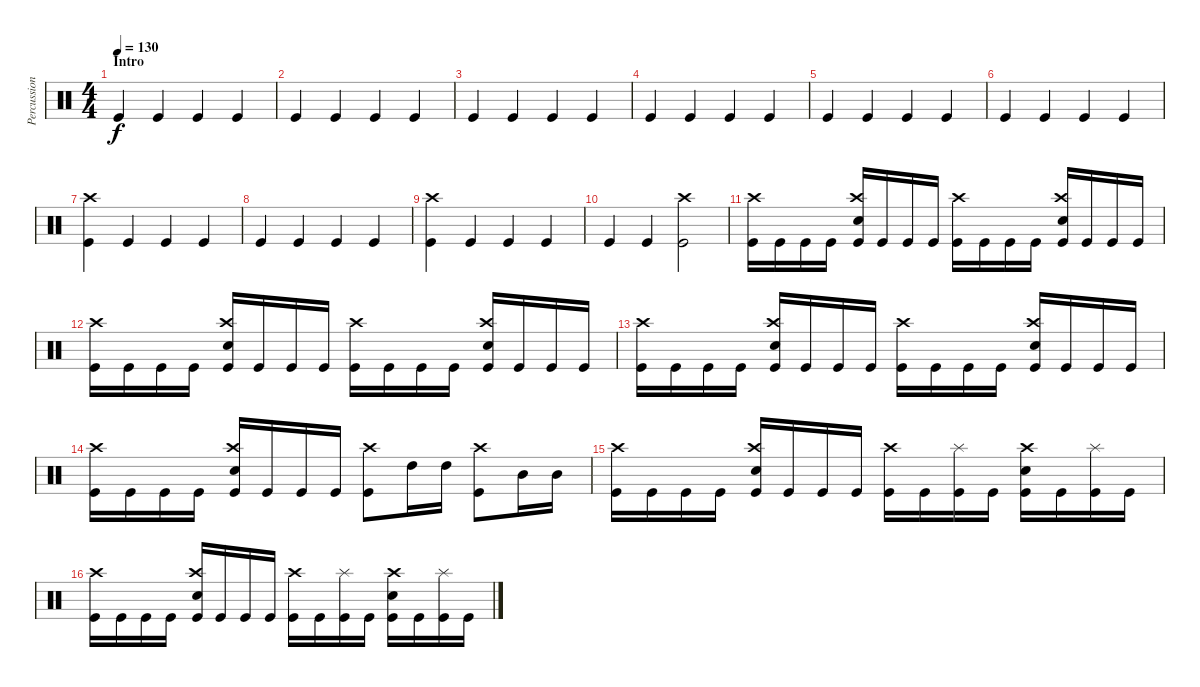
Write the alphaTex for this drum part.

\track ("Percussion" "Percussion") {instrument percussion}
\staff {score}
\articulation defaults
\ts (4 4)
\section ("" "Intro")
\tempo 130
\clef neutral
\ks c "Kick (hit)".4{dy f} "Kick (hit)".4 "Kick (hit)".4 "Kick (hit)".4
|
"Kick (hit)".4 "Kick (hit)".4 "Kick (hit)".4 "Kick (hit)".4 |
"Kick (hit)".4 "Kick (hit)".4 "Kick (hit)".4 "Kick (hit)".4 |
"Kick (hit)".4 "Kick (hit)".4 "Kick (hit)".4 "Kick (hit)".4 |
"Kick (hit)".4 "Kick (hit)".4 "Kick (hit)".4 "Kick (hit)".4 |
"Kick (hit)".4 "Kick (hit)".4 "Kick (hit)".4 "Kick (hit)".4 |
("Crash high (hit)" "Kick (hit)").4 "Kick (hit)".4 "Kick (hit)".4 "Kick (hit)".4 |
"Kick (hit)".4 "Kick (hit)".4 "Kick (hit)".4 "Kick (hit)".4 |
("Crash high (hit)" "Kick (hit)").4 "Kick (hit)".4 "Kick (hit)".4 "Kick (hit)".4 |
"Kick (hit)".4 "Kick (hit)".4 ("Crash high (hit)" "Kick (hit)").2 |
("Crash high (hit)" "Kick (hit)").16 "Kick (hit)".16 "Kick (hit)".16 "Kick (hit)".16 ("Crash high (hit)" "Snare (hit) 2" "Kick (hit)").16 "Kick (hit)".16 "Kick (hit)".16 "Kick (hit)".16 ("Crash high (hit)" "Kick (hit)").16 "Kick (hit)".16 "Kick (hit)".16 "Kick (hit)".16 ("Snare (hit) 2" "Crash high (hit)" "Kick (hit)").16 "Kick (hit)".16 "Kick (hit)".16 "Kick (hit)".16 |
("Crash high (hit)" "Kick (hit)").16 "Kick (hit)".16 "Kick (hit)".16 "Kick (hit)".16 ("Crash high (hit)" "Snare (hit) 2" "Kick (hit)").16 "Kick (hit)".16 "Kick (hit)".16 "Kick (hit)".16 ("Crash high (hit)" "Kick (hit)").16 "Kick (hit)".16 "Kick (hit)".16 "Kick (hit)".16 ("Snare (hit) 2" "Crash high (hit)" "Kick (hit)").16 "Kick (hit)".16 "Kick (hit)".16 "Kick (hit)".16 |
("Crash high (hit)" "Kick (hit)").16 "Kick (hit)".16 "Kick (hit)".16 "Kick (hit)".16 ("Crash high (hit)" "Snare (hit) 2" "Kick (hit)").16 "Kick (hit)".16 "Kick (hit)".16 "Kick (hit)".16 ("Crash high (hit)" "Kick (hit)").16 "Kick (hit)".16 "Kick (hit)".16 "Kick (hit)".16 ("Snare (hit) 2" "Crash high (hit)" "Kick (hit)").16 "Kick (hit)".16 "Kick (hit)".16 "Kick (hit)".16 |
("Crash high (hit)" "Kick (hit)").16 "Kick (hit)".16 "Kick (hit)".16 "Kick (hit)".16 ("Crash high (hit)" "Snare (hit) 2" "Kick (hit)").16 "Kick (hit)".16 "Kick (hit)".16 "Kick (hit)".16 ("Crash high (hit)" "Kick (hit)").8 "High Tom (hit)".16 "High Tom (hit)".16 ("Crash high (hit)" "Kick (hit)").8 "Mid Tom (hit)".16 "Mid Tom (hit)".16 |
("Crash high (hit)" "Kick (hit)").16 "Kick (hit)".16 "Kick (hit)".16 "Kick (hit)".16 ("Crash high (hit)" "Snare (hit) 2" "Kick (hit)").16 "Kick (hit)".16 "Kick (hit)".16 "Kick (hit)".16 ("Crash high (hit)" "Kick (hit)").16 "Kick (hit)".16 ("Splash (hit)" "Kick (hit)").16 "Kick (hit)".16 ("Snare (hit) 2" "Crash high (hit)" "Kick (hit)").16 "Kick (hit)".16 ("Splash (hit)" "Kick (hit)").16 "Kick (hit)".16 |
("Crash high (hit)" "Kick (hit)").16 "Kick (hit)".16 "Kick (hit)".16 "Kick (hit)".16 ("Crash high (hit)" "Snare (hit) 2" "Kick (hit)").16 "Kick (hit)".16 "Kick (hit)".16 "Kick (hit)".16 ("Crash high (hit)" "Kick (hit)").16 "Kick (hit)".16 ("Splash (hit)" "Kick (hit)").16 "Kick (hit)".16 ("Snare (hit) 2" "Crash high (hit)" "Kick (hit)").16 "Kick (hit)".16 ("Splash (hit)" "Kick (hit)").16 "Kick (hit)".16
